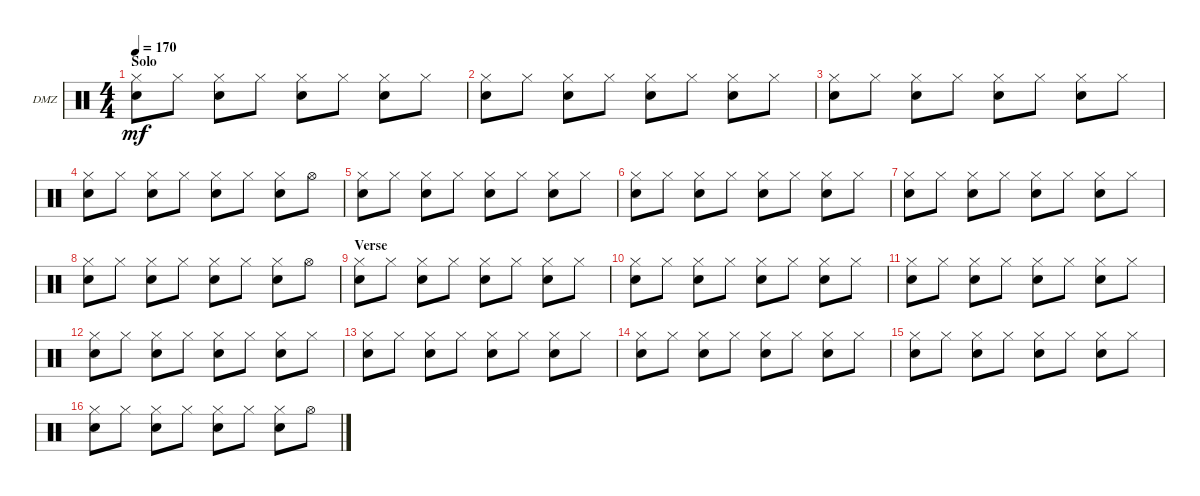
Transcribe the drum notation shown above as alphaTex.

\defaultSystemsLayout 4
\bracketExtendMode groupsimilarinstruments
\firstSystemTrackNameOrientation horizontal
\otherSystemsTrackNameOrientation horizontal
\track ("Drumz" "DMZ") {instrument percussion}
\staff {score}
\articulation defaults
\ts (4 4)
\section ("" "Solo")
\tempo 170
\clef neutral
\scale
0.472222
\ks c
("Hi-Hat (closed)" "Snare (hit) 2").8{dy mf} "Hi-Hat (closed)".8 ("Hi-Hat (closed)" "Snare (hit) 2").8 "Hi-Hat (closed)".8 ("Hi-Hat (closed)" "Snare (hit) 2").8 "Hi-Hat (closed)".8 ("Hi-Hat (closed)" "Snare (hit) 2").8 "Hi-Hat (closed)".8 |
\scale
0.263889 ("Hi-Hat (closed)" "Snare (hit) 2").8 "Hi-Hat (closed)".8 ("Hi-Hat (closed)" "Snare (hit) 2").8 "Hi-Hat (closed)".8 ("Hi-Hat (closed)" "Snare (hit) 2").8 "Hi-Hat (closed)".8 ("Hi-Hat (closed)" "Snare (hit) 2").8 "Hi-Hat (closed)".8 |
\scale
0.263889 ("Hi-Hat (closed)" "Snare (hit) 2").8 "Hi-Hat (closed)".8 ("Hi-Hat (closed)" "Snare (hit) 2").8 "Hi-Hat (closed)".8 ("Hi-Hat (closed)" "Snare (hit) 2").8 "Hi-Hat (closed)".8 ("Hi-Hat (closed)" "Snare (hit) 2").8 "Hi-Hat (closed)".8 |
\scale
0.333333 ("Hi-Hat (closed)" "Snare (hit) 2").8 "Hi-Hat (closed)".8 ("Hi-Hat (closed)" "Snare (hit) 2").8 "Hi-Hat (closed)".8 ("Hi-Hat (closed)" "Snare (hit) 2").8 "Hi-Hat (closed)".8 ("Hi-Hat (closed)" "Snare (hit) 2").8 "Hi-Hat (open)".8 |
\scale
0.333333 ("Hi-Hat (closed)" "Snare (hit) 2").8 "Hi-Hat (closed)".8 ("Hi-Hat (closed)" "Snare (hit) 2").8 "Hi-Hat (closed)".8 ("Hi-Hat (closed)" "Snare (hit) 2").8 "Hi-Hat (closed)".8 ("Hi-Hat (closed)" "Snare (hit) 2").8 "Hi-Hat (closed)".8 |
\scale
0.333333 ("Hi-Hat (closed)" "Snare (hit) 2").8 "Hi-Hat (closed)".8 ("Hi-Hat (closed)" "Snare (hit) 2").8 "Hi-Hat (closed)".8 ("Hi-Hat (closed)" "Snare (hit) 2").8 "Hi-Hat (closed)".8 ("Hi-Hat (closed)" "Snare (hit) 2").8 "Hi-Hat (closed)".8 |
\scale
0.333333 ("Hi-Hat (closed)" "Snare (hit) 2").8 "Hi-Hat (closed)".8 ("Hi-Hat (closed)" "Snare (hit) 2").8 "Hi-Hat (closed)".8 ("Hi-Hat (closed)" "Snare (hit) 2").8 "Hi-Hat (closed)".8 ("Hi-Hat (closed)" "Snare (hit) 2").8 "Hi-Hat (closed)".8 |
\scale
0.333333 ("Hi-Hat (closed)" "Snare (hit) 2").8 "Hi-Hat (closed)".8 ("Hi-Hat (closed)" "Snare (hit) 2").8 "Hi-Hat (closed)".8 ("Hi-Hat (closed)" "Snare (hit) 2").8 "Hi-Hat (closed)".8 ("Hi-Hat (closed)" "Snare (hit) 2").8 "Hi-Hat (open)".8 |
\section ("" "Verse")
("Hi-Hat (closed)" "Snare (hit) 2").8 "Hi-Hat (closed)".8 ("Hi-Hat (closed)" "Snare (hit) 2").8 "Hi-Hat (closed)".8 ("Hi-Hat (closed)" "Snare (hit) 2").8 "Hi-Hat (closed)".8 ("Hi-Hat (closed)" "Snare (hit) 2").8 "Hi-Hat (closed)".8 |
("Hi-Hat (closed)" "Snare (hit) 2").8 "Hi-Hat (closed)".8 ("Hi-Hat (closed)" "Snare (hit) 2").8 "Hi-Hat (closed)".8 ("Hi-Hat (closed)" "Snare (hit) 2").8 "Hi-Hat (closed)".8 ("Hi-Hat (closed)" "Snare (hit) 2").8 "Hi-Hat (closed)".8 |
("Hi-Hat (closed)" "Snare (hit) 2").8 "Hi-Hat (closed)".8 ("Hi-Hat (closed)" "Snare (hit) 2").8 "Hi-Hat (closed)".8 ("Hi-Hat (closed)" "Snare (hit) 2").8 "Hi-Hat (closed)".8 ("Hi-Hat (closed)" "Snare (hit) 2").8 "Hi-Hat (closed)".8 |
("Hi-Hat (closed)" "Snare (hit) 2").8 "Hi-Hat (closed)".8 ("Hi-Hat (closed)" "Snare (hit) 2").8 "Hi-Hat (closed)".8 ("Hi-Hat (closed)" "Snare (hit) 2").8 "Hi-Hat (closed)".8 ("Hi-Hat (closed)" "Snare (hit) 2").8 "Hi-Hat (closed)".8 |
("Hi-Hat (closed)" "Snare (hit) 2").8 "Hi-Hat (closed)".8 ("Hi-Hat (closed)" "Snare (hit) 2").8 "Hi-Hat (closed)".8 ("Hi-Hat (closed)" "Snare (hit) 2").8 "Hi-Hat (closed)".8 ("Hi-Hat (closed)" "Snare (hit) 2").8 "Hi-Hat (closed)".8 |
("Hi-Hat (closed)" "Snare (hit) 2").8 "Hi-Hat (closed)".8 ("Hi-Hat (closed)" "Snare (hit) 2").8 "Hi-Hat (closed)".8 ("Hi-Hat (closed)" "Snare (hit) 2").8 "Hi-Hat (closed)".8 ("Hi-Hat (closed)" "Snare (hit) 2").8 "Hi-Hat (closed)".8 |
("Hi-Hat (closed)" "Snare (hit) 2").8 "Hi-Hat (closed)".8 ("Hi-Hat (closed)" "Snare (hit) 2").8 "Hi-Hat (closed)".8 ("Hi-Hat (closed)" "Snare (hit) 2").8 "Hi-Hat (closed)".8 ("Hi-Hat (closed)" "Snare (hit) 2").8 "Hi-Hat (closed)".8 |
("Hi-Hat (closed)" "Snare (hit) 2").8 "Hi-Hat (closed)".8 ("Hi-Hat (closed)" "Snare (hit) 2").8 "Hi-Hat (closed)".8 ("Hi-Hat (closed)" "Snare (hit) 2").8 "Hi-Hat (closed)".8 ("Hi-Hat (closed)" "Snare (hit) 2").8 "Hi-Hat (open)".8
